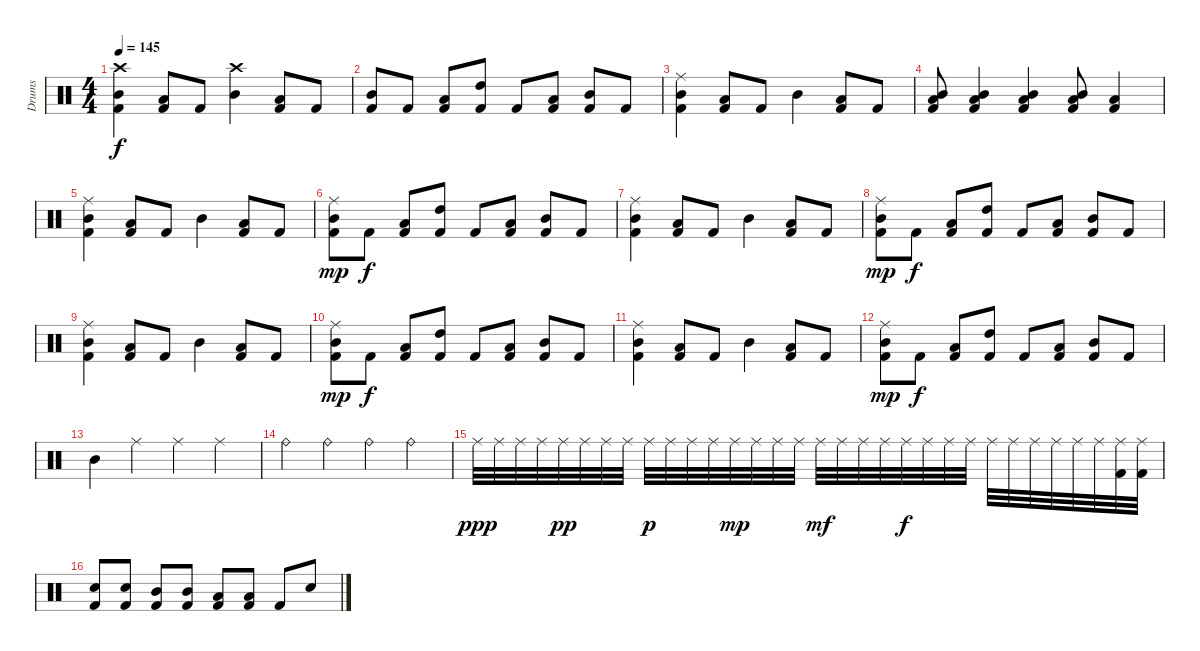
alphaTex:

\track ("Drums" "Drums") {instrument percussion}
\staff {score}
\articulation defaults
\ts (4 4)
\tempo 145
\clef neutral
\ks c
("Crash high (hit)" "Mid Tom (hit)" "Kick (hit) 2").4{dy f} ("Low Tom (hit)" "Kick (hit) 2").8 "Kick (hit) 2".8 ("Crash high (hit)" "Mid Tom (hit)").4 ("Low Tom (hit)" "Kick (hit) 2").8 "Kick (hit) 2".8 |
("Mid Tom (hit)" "Kick (hit) 2").8 "Kick (hit) 2".8 ("Low Tom (hit)" "Kick (hit) 2").8 ("High Tom (hit)" "Kick (hit) 2").8 "Kick (hit) 2".8 ("Low Tom (hit)" "Kick (hit) 2").8 ("Mid Tom (hit)" "Kick (hit) 2").8 "Kick (hit) 2".8 |
("Ride (middle)" "Mid Tom (hit)" "Kick (hit) 2").4 ("Low Tom (hit)" "Kick (hit) 2").8 "Kick (hit) 2".8 "Mid Tom (hit)".4 ("Low Tom (hit)" "Kick (hit) 2").8 "Kick (hit) 2".8 |
("Mid Tom (hit)" "Low Tom (hit)" "Kick (hit) 2").8 ("Mid Tom (hit)" "Low Tom (hit)" "Kick (hit) 2").4 ("Mid Tom (hit)" "Low Tom (hit)" "Kick (hit) 2").4 ("Mid Tom (hit)" "Low Tom (hit)" "Kick (hit) 2").8 ("Low Tom (hit)" "Kick (hit) 2").4 |
("Ride (middle)" "Mid Tom (hit)" "Kick (hit) 2").4 ("Low Tom (hit)" "Kick (hit) 2").8 "Kick (hit) 2".8 "Mid Tom (hit)".4 ("Low Tom (hit)" "Kick (hit) 2").8 "Kick (hit) 2".8 |
("Ride (middle)" "Mid Tom (hit)" "Kick (hit) 2").8{dy mp} "Kick (hit) 2".8{dy f} ("Low Tom (hit)" "Kick (hit) 2").8 ("High Tom (hit)" "Kick (hit) 2").8 "Kick (hit) 2".8 ("Low Tom (hit)" "Kick (hit) 2").8 ("Mid Tom (hit)" "Kick (hit) 2").8 "Kick (hit) 2".8 |
("Ride (middle)" "Mid Tom (hit)" "Kick (hit) 2").4 ("Low Tom (hit)" "Kick (hit) 2").8 "Kick (hit) 2".8 "Mid Tom (hit)".4 ("Low Tom (hit)" "Kick (hit) 2").8 "Kick (hit) 2".8 |
("Ride (middle)" "Mid Tom (hit)" "Kick (hit) 2").8{dy mp} "Kick (hit) 2".8{dy f} ("Low Tom (hit)" "Kick (hit) 2").8 ("High Tom (hit)" "Kick (hit) 2").8 "Kick (hit) 2".8 ("Low Tom (hit)" "Kick (hit) 2").8 ("Mid Tom (hit)" "Kick (hit) 2").8 "Kick (hit) 2".8 |
("Ride (middle)" "Mid Tom (hit)" "Kick (hit) 2").4 ("Low Tom (hit)" "Kick (hit) 2").8 "Kick (hit) 2".8 "Mid Tom (hit)".4 ("Low Tom (hit)" "Kick (hit) 2").8 "Kick (hit) 2".8 |
("Ride (middle)" "Mid Tom (hit)" "Kick (hit) 2").8{dy mp} "Kick (hit) 2".8{dy f} ("Low Tom (hit)" "Kick (hit) 2").8 ("High Tom (hit)" "Kick (hit) 2").8 "Kick (hit) 2".8 ("Low Tom (hit)" "Kick (hit) 2").8 ("Mid Tom (hit)" "Kick (hit) 2").8 "Kick (hit) 2".8 |
("Ride (middle)" "Mid Tom (hit)" "Kick (hit) 2").4 ("Low Tom (hit)" "Kick (hit) 2").8 "Kick (hit) 2".8 "Mid Tom (hit)".4 ("Low Tom (hit)" "Kick (hit) 2").8 "Kick (hit) 2".8 |
("Ride (middle)" "Mid Tom (hit)" "Kick (hit) 2").8{dy mp} "Kick (hit) 2".8{dy f} ("Low Tom (hit)" "Kick (hit) 2").8 ("High Tom (hit)" "Kick (hit) 2").8 "Kick (hit) 2".8 ("Low Tom (hit)" "Kick (hit) 2").8 ("Mid Tom (hit)" "Kick (hit) 2").8 "Kick (hit) 2".8 |
"Mid Tom (hit)".4 "Ride (middle)".4 "Ride (middle)".4 "Ride (middle)".4 |
"Ride (bell)".4 "Ride (bell)".4 "Ride (bell)".4 "Ride (bell)".4 |
"Ride (middle)".32{dy ppp} "Ride (middle)".32 "Ride (middle)".32 "Ride (middle)".32 "Ride (middle)".32{dy pp} "Ride (middle)".32 "Ride (middle)".32 "Ride (middle)".32 "Ride (middle)".32{dy p} "Ride (middle)".32 "Ride (middle)".32 "Ride (middle)".32 "Ride (middle)".32{dy mp} "Ride (middle)".32 "Ride (middle)".32 "Ride (middle)".32 "Ride (middle)".32{dy mf} "Ride (middle)".32 "Ride (middle)".32 "Ride (middle)".32 "Ride (middle)".32{dy f} "Ride (middle)".32 "Ride (middle)".32 "Ride (middle)".32 "Ride (middle)".32 "Ride (middle)".32 "Ride (middle)".32 "Ride (middle)".32 "Ride (middle)".32 "Ride (middle)".32 ("Ride (middle)" "Kick (hit) 2").32 ("Ride (middle)" "Kick (hit) 2").32 |
("Electric Snare (hit)" "Kick (hit) 2").8 ("Electric Snare (hit)" "Kick (hit) 2").8 ("Mid Tom (hit)" "Kick (hit) 2").8 ("Mid Tom (hit)" "Kick (hit) 2").8 ("Low Tom (hit)" "Kick (hit) 2").8 ("Low Tom (hit)" "Kick (hit) 2").8 "Kick (hit) 2".8 "Electric Snare (hit)".8
